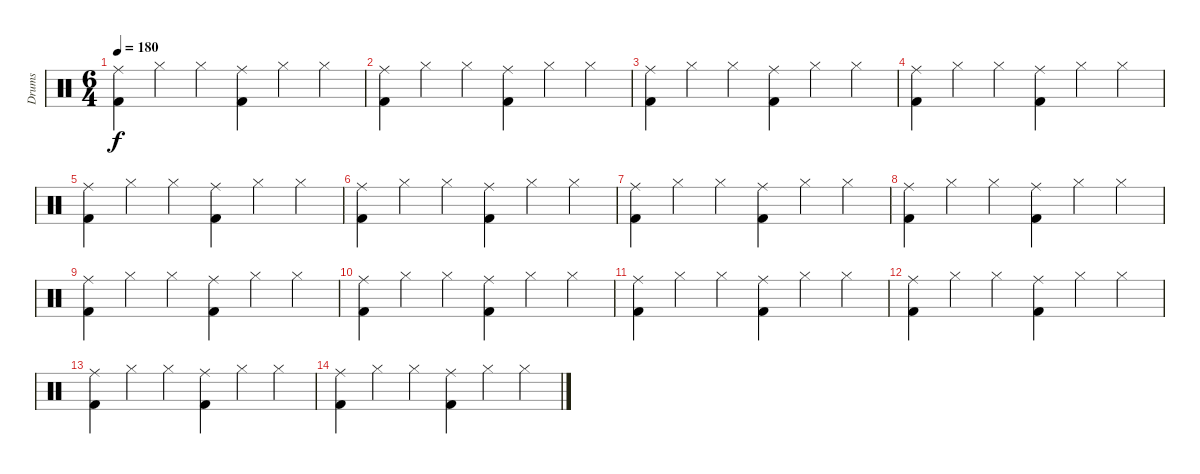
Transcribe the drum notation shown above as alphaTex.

\track ("Drums" "Drums") {instrument percussion}
\staff {score}
\articulation defaults
\ts (6 4)
\tempo 180
\clef neutral
\ks c
("Ride (middle)" "Kick (hit) 2").4{dy f} "Hi-Hat (closed)".4 "Hi-Hat (closed)".4 ("Ride (middle)" "Kick (hit) 2").4 "Hi-Hat (closed)".4 "Hi-Hat (closed)".4 |
("Ride (middle)" "Kick (hit) 2").4 "Hi-Hat (closed)".4 "Hi-Hat (closed)".4 ("Ride (middle)" "Kick (hit) 2").4 "Hi-Hat (closed)".4 "Hi-Hat (closed)".4 |
("Ride (middle)" "Kick (hit) 2").4 "Hi-Hat (closed)".4 "Hi-Hat (closed)".4 ("Ride (middle)" "Kick (hit) 2").4 "Hi-Hat (closed)".4 "Hi-Hat (closed)".4 |
("Ride (middle)" "Kick (hit) 2").4 "Hi-Hat (closed)".4 "Hi-Hat (closed)".4 ("Ride (middle)" "Kick (hit) 2").4 "Hi-Hat (closed)".4 "Hi-Hat (closed)".4 |
("Ride (middle)" "Kick (hit) 2").4 "Hi-Hat (closed)".4 "Hi-Hat (closed)".4 ("Ride (middle)" "Kick (hit) 2").4 "Hi-Hat (closed)".4 "Hi-Hat (closed)".4 |
("Ride (middle)" "Kick (hit) 2").4 "Hi-Hat (closed)".4 "Hi-Hat (closed)".4 ("Ride (middle)" "Kick (hit) 2").4 "Hi-Hat (closed)".4 "Hi-Hat (closed)".4 |
("Ride (middle)" "Kick (hit) 2").4 "Hi-Hat (closed)".4 "Hi-Hat (closed)".4 ("Ride (middle)" "Kick (hit) 2").4 "Hi-Hat (closed)".4 "Hi-Hat (closed)".4 |
("Ride (middle)" "Kick (hit) 2").4 "Hi-Hat (closed)".4 "Hi-Hat (closed)".4 ("Ride (middle)" "Kick (hit) 2").4 "Hi-Hat (closed)".4 "Hi-Hat (closed)".4 |
("Ride (middle)" "Kick (hit) 2").4 "Hi-Hat (closed)".4 "Hi-Hat (closed)".4 ("Ride (middle)" "Kick (hit) 2").4 "Hi-Hat (closed)".4 "Hi-Hat (closed)".4 |
("Ride (middle)" "Kick (hit) 2").4 "Hi-Hat (closed)".4 "Hi-Hat (closed)".4 ("Ride (middle)" "Kick (hit) 2").4 "Hi-Hat (closed)".4 "Hi-Hat (closed)".4 |
("Ride (middle)" "Kick (hit) 2").4 "Hi-Hat (closed)".4 "Hi-Hat (closed)".4 ("Ride (middle)" "Kick (hit) 2").4 "Hi-Hat (closed)".4 "Hi-Hat (closed)".4 |
("Ride (middle)" "Kick (hit) 2").4 "Hi-Hat (closed)".4 "Hi-Hat (closed)".4 ("Ride (middle)" "Kick (hit) 2").4 "Hi-Hat (closed)".4 "Hi-Hat (closed)".4 |
("Ride (middle)" "Kick (hit) 2").4 "Hi-Hat (closed)".4 "Hi-Hat (closed)".4 ("Ride (middle)" "Kick (hit) 2").4 "Hi-Hat (closed)".4 "Hi-Hat (closed)".4 |
("Ride (middle)" "Kick (hit) 2").4 "Hi-Hat (closed)".4 "Hi-Hat (closed)".4 ("Ride (middle)" "Kick (hit) 2").4 "Hi-Hat (closed)".4 "Hi-Hat (closed)".4
